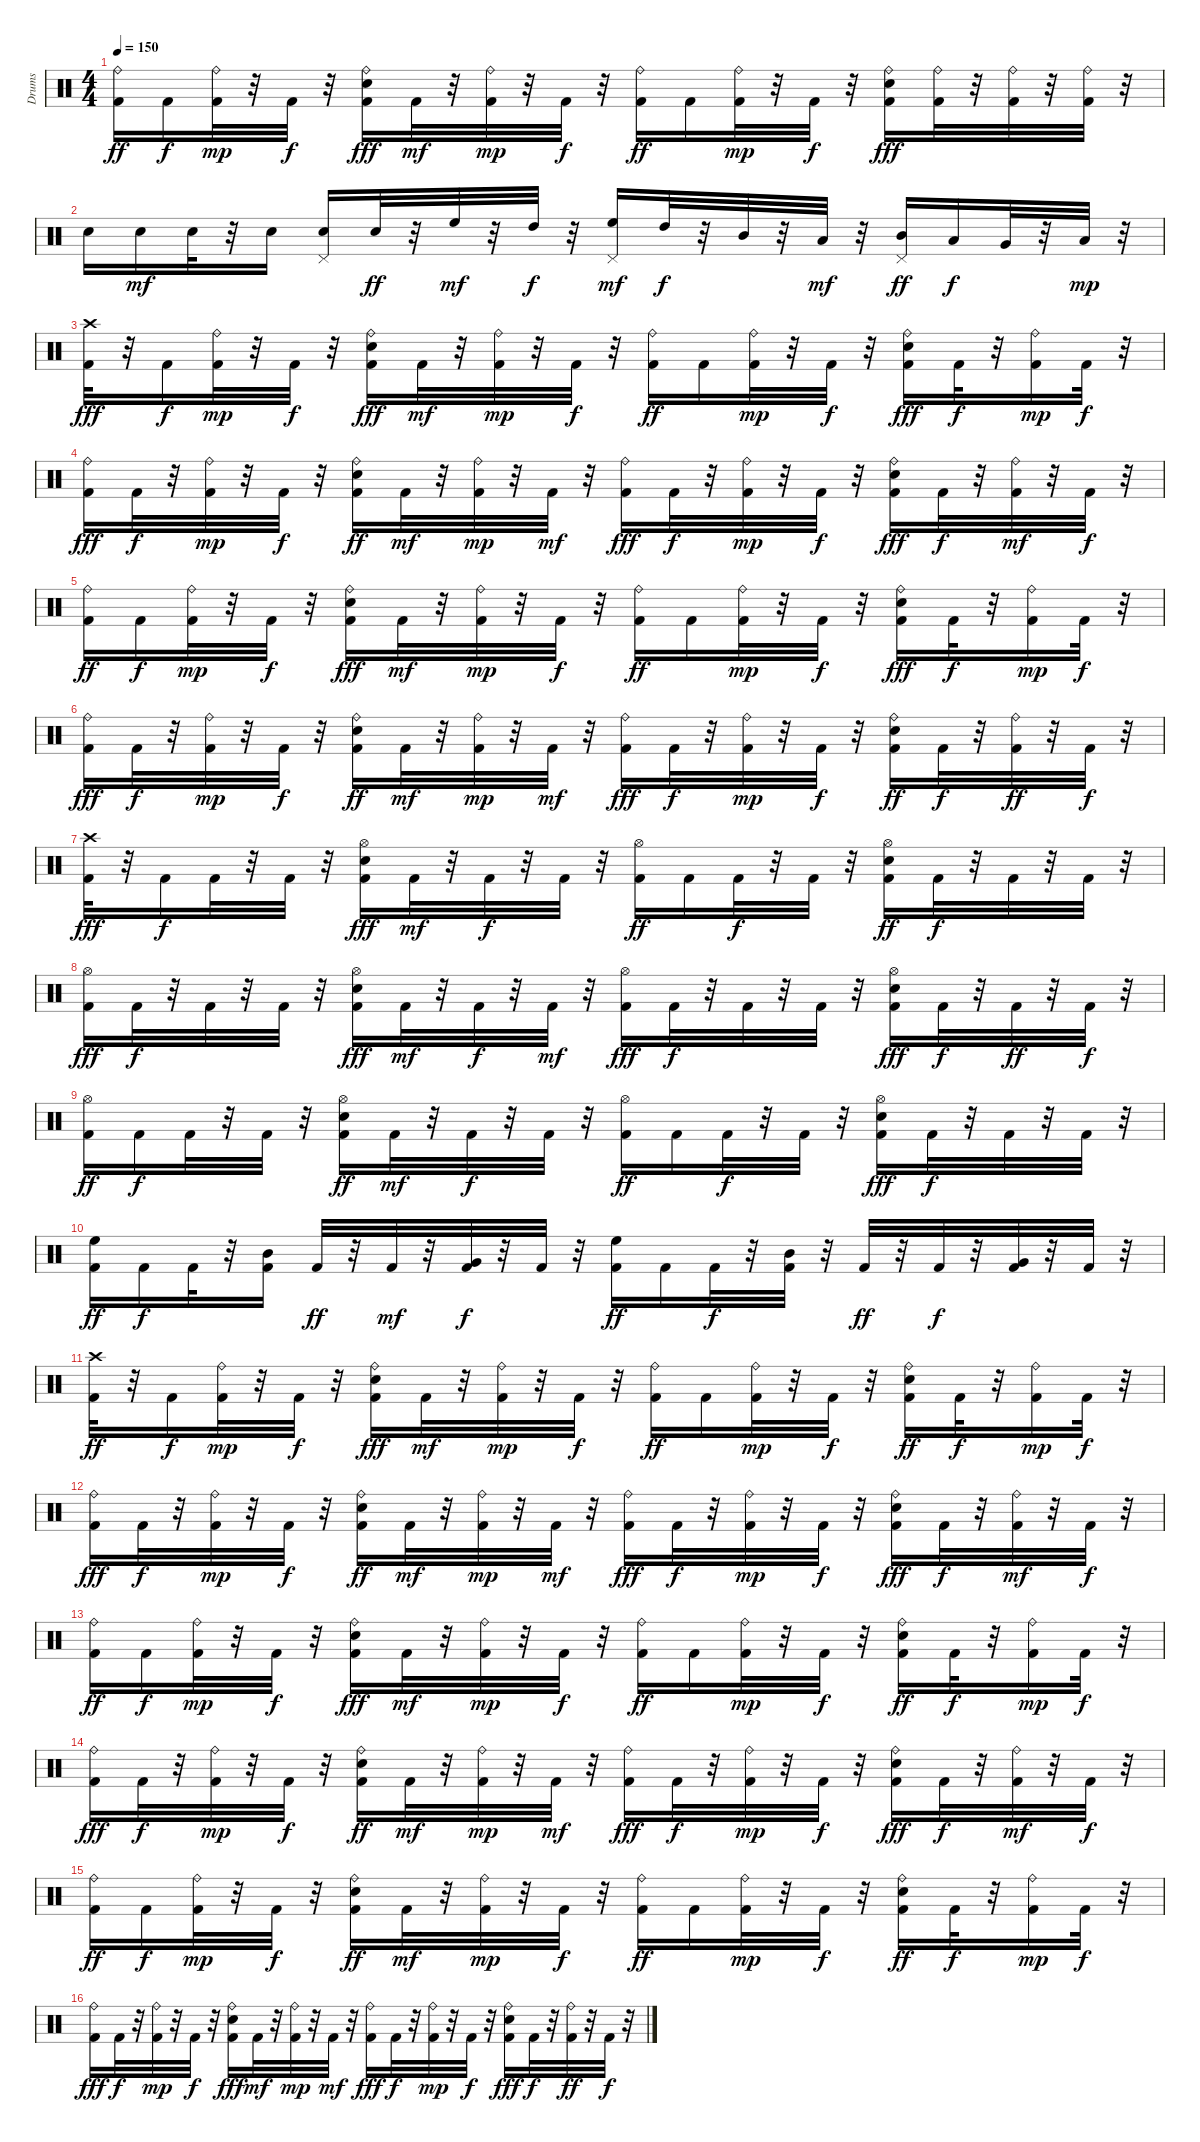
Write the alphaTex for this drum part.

\track ("Drums" "Drums") {instrument percussion}
\staff {score}
\articulation defaults
\ts (4 4)
\tempo 150
\clef neutral
\ks c
("Ride (bell)" "Kick (hit) 2").16{dy ff} "Kick (hit) 2".16{dy f} ("Ride (bell)" "Kick (hit) 2").32{dy mp} r.32 "Kick (hit) 2".32{dy f} r.32 ("Kick (hit) 2" "Electric Snare (hit)" "Ride (bell)").16{dy fff} "Kick (hit) 2".32{dy mf} r.32 ("Kick (hit) 2" "Ride (bell)").32{dy mp} r.32 "Kick (hit) 2".32{dy f} r.32 ("Ride (bell)" "Kick (hit) 2").16{dy ff} "Kick (hit) 2".16 ("Ride (bell)" "Kick (hit) 2").32{dy mp} r.32 "Kick (hit) 2".32{dy f} r.32 ("Electric Snare (hit)" "Kick (hit) 2" "Ride (bell)").16{dy fff} ("Kick (hit) 2" "Ride (bell)").32 r.32 ("Ride (bell)" "Kick (hit) 2").32 r.32 ("Ride (bell)" "Kick (hit) 2").32 r.32 |
"Electric Snare (hit)".16 "Electric Snare (hit)".16{dy mf} "Electric Snare (hit)".32 r.32 "Electric Snare (hit)".16 ("Electric Snare (hit)" "Pedal Hi-Hat (hit)").16 "Electric Snare (hit)".32{dy ff} r.32 "High Floor Tom (hit)".32{dy mf} r.32 "High Tom (hit)".32{dy f} r.32 ("High Floor Tom (hit)" "Pedal Hi-Hat (hit)").16{dy mf} "High Tom (hit)".32{dy f} r.32 "Mid Tom (hit)".32 r.32 "Low Tom (hit)".32{dy mf} r.32 ("Pedal Hi-Hat (hit)" "Mid Tom (hit)").16{dy ff} "Low Tom (hit)".16{dy f} "Very Low Tom (hit)".32 r.32 "Low Floor Tom (hit)".32{dy mp} r.32 |
("Kick (hit) 2" "Crash high (hit)").32{dy fff} r.32 "Kick (hit) 2".16{dy f} ("Ride (bell)" "Kick (hit) 2").32{dy mp} r.32 "Kick (hit) 2".32{dy f} r.32 ("Electric Snare (hit)" "Kick (hit) 2" "Ride (bell)").16{dy fff} "Kick (hit) 2".32{dy mf} r.32 ("Kick (hit) 2" "Ride (bell)").32{dy mp} r.32 "Kick (hit) 2".32{dy f} r.32 ("Kick (hit) 2" "Ride (bell)").16{dy ff} "Kick (hit) 2".16 ("Ride (bell)" "Kick (hit) 2").32{dy mp} r.32 "Kick (hit) 2".32{dy f} r.32 ("Kick (hit) 2" "Ride (bell)" "Electric Snare (hit)").16{dy fff} "Kick (hit) 2".32{dy f} r.32 ("Ride (bell)" "Kick (hit) 2").16{dy mp} "Kick (hit) 2".32{dy f} r.32 |
("Ride (bell)" "Kick (hit) 2").16{dy fff} "Kick (hit) 2".32{dy f} r.32 ("Ride (bell)" "Kick (hit) 2").32{dy mp} r.32 "Kick (hit) 2".32{dy f} r.32 ("Kick (hit) 2" "Electric Snare (hit)" "Ride (bell)").16{dy ff} "Kick (hit) 2".32{dy mf} r.32 ("Ride (bell)" "Kick (hit) 2").32{dy mp} r.32 "Kick (hit) 2".32{dy mf} r.32 ("Kick (hit) 2" "Ride (bell)").16{dy fff} "Kick (hit) 2".32{dy f} r.32 ("Ride (bell)" "Kick (hit) 2").32{dy mp} r.32 "Kick (hit) 2".32{dy f} r.32 ("Ride (bell)" "Electric Snare (hit)" "Kick (hit) 2").16{dy fff} "Kick (hit) 2".32{dy f} r.32 ("Kick (hit) 2" "Ride (bell)").32{dy mf} r.32 "Kick (hit) 2".32{dy f} r.32 |
("Kick (hit) 2" "Ride (bell)").16{dy ff} "Kick (hit) 2".16{dy f} ("Ride (bell)" "Kick (hit) 2").32{dy mp} r.32 "Kick (hit) 2".32{dy f} r.32 ("Electric Snare (hit)" "Kick (hit) 2" "Ride (bell)").16{dy fff} "Kick (hit) 2".32{dy mf} r.32 ("Ride (bell)" "Kick (hit) 2").32{dy mp} r.32 "Kick (hit) 2".32{dy f} r.32 ("Ride (bell)" "Kick (hit) 2").16{dy ff} "Kick (hit) 2".16 ("Kick (hit) 2" "Ride (bell)").32{dy mp} r.32 "Kick (hit) 2".32{dy f} r.32 ("Kick (hit) 2" "Ride (bell)" "Electric Snare (hit)").16{dy fff} "Kick (hit) 2".32{dy f} r.32 ("Ride (bell)" "Kick (hit) 2").16{dy mp} "Kick (hit) 2".32{dy f} r.32 |
("Ride (bell)" "Kick (hit) 2").16{dy fff} "Kick (hit) 2".32{dy f} r.32 ("Kick (hit) 2" "Ride (bell)").32{dy mp} r.32 "Kick (hit) 2".32{dy f} r.32 ("Kick (hit) 2" "Electric Snare (hit)" "Ride (bell)").16{dy ff} "Kick (hit) 2".32{dy mf} r.32 ("Ride (bell)" "Kick (hit) 2").32{dy mp} r.32 "Kick (hit) 2".32{dy mf} r.32 ("Ride (bell)" "Kick (hit) 2").16{dy fff} "Kick (hit) 2".32{dy f} r.32 ("Kick (hit) 2" "Ride (bell)").32{dy mp} r.32 "Kick (hit) 2".32{dy f} r.32 ("Kick (hit) 2" "Electric Snare (hit)" "Ride (bell)").16{dy ff} "Kick (hit) 2".32{dy f} r.32 ("Ride (bell)" "Kick (hit) 2").32{dy ff} r.32 "Kick (hit) 2".32{dy f} r.32 |
("Kick (hit) 2" "Crash high (hit)").32{dy fff} r.32 "Kick (hit) 2".16{dy f} "Kick (hit) 2".32 r.32 "Kick (hit) 2".32 r.32 ("Kick (hit) 2" "Hi-Hat (open)" "Electric Snare (hit)").16{dy fff} "Kick (hit) 2".32{dy mf} r.32 "Kick (hit) 2".32{dy f} r.32 "Kick (hit) 2".32 r.32 ("Hi-Hat (open)" "Kick (hit) 2").16{dy ff} "Kick (hit) 2".16 "Kick (hit) 2".32{dy f} r.32 "Kick (hit) 2".32 r.32 ("Electric Snare (hit)" "Kick (hit) 2" "Hi-Hat (open)").16{dy ff} "Kick (hit) 2".32{dy f} r.32 "Kick (hit) 2".32 r.32 "Kick (hit) 2".32 r.32 |
("Kick (hit) 2" "Hi-Hat (open)").16{dy fff} "Kick (hit) 2".32{dy f} r.32 "Kick (hit) 2".32 r.32 "Kick (hit) 2".32 r.32 ("Kick (hit) 2" "Electric Snare (hit)" "Hi-Hat (open)").16{dy fff} "Kick (hit) 2".32{dy mf} r.32 "Kick (hit) 2".32{dy f} r.32 "Kick (hit) 2".32{dy mf} r.32 ("Hi-Hat (open)" "Kick (hit) 2").16{dy fff} "Kick (hit) 2".32{dy f} r.32 "Kick (hit) 2".32 r.32 "Kick (hit) 2".32 r.32 ("Hi-Hat (open)" "Kick (hit) 2" "Electric Snare (hit)").16{dy fff} "Kick (hit) 2".32{dy f} r.32 "Kick (hit) 2".32{dy ff} r.32 "Kick (hit) 2".32{dy f} r.32 |
("Hi-Hat (open)" "Kick (hit) 2").16{dy ff} "Kick (hit) 2".16{dy f} "Kick (hit) 2".32 r.32 "Kick (hit) 2".32 r.32 ("Electric Snare (hit)" "Hi-Hat (open)" "Kick (hit) 2").16{dy ff} "Kick (hit) 2".32{dy mf} r.32 "Kick (hit) 2".32{dy f} r.32 "Kick (hit) 2".32 r.32 ("Hi-Hat (open)" "Kick (hit) 2").16{dy ff} "Kick (hit) 2".16 "Kick (hit) 2".32{dy f} r.32 "Kick (hit) 2".32 r.32 ("Kick (hit) 2" "Hi-Hat (open)" "Electric Snare (hit)").16{dy fff} "Kick (hit) 2".32{dy f} r.32 "Kick (hit) 2".32 r.32 "Kick (hit) 2".32 r.32 |
("High Floor Tom (hit)" "Kick (hit) 2").16{dy ff} "Kick (hit) 2".16{dy f} "Kick (hit) 2".32 r.32 ("Kick (hit) 2" "Mid Tom (hit)").16 "Kick (hit) 2".32{dy ff} r.32 "Kick (hit) 2".32{dy mf} r.32 ("Kick (hit) 2" "Very Low Tom (hit)").32{dy f} r.32 "Kick (hit) 2".32 r.32 ("High Floor Tom (hit)" "Kick (hit) 2").16{dy ff} "Kick (hit) 2".16 "Kick (hit) 2".32{dy f} r.32 ("Kick (hit) 2" "Mid Tom (hit)").32 r.32 "Kick (hit) 2".32{dy ff} r.32 "Kick (hit) 2".32{dy f} r.32 ("Kick (hit) 2" "Very Low Tom (hit)").32 r.32 "Kick (hit) 2".32 r.32 |
("Crash high (hit)" "Kick (hit) 2").32{dy ff} r.32 "Kick (hit) 2".16{dy f} ("Ride (bell)" "Kick (hit) 2").32{dy mp} r.32 "Kick (hit) 2".32{dy f} r.32 ("Ride (bell)" "Kick (hit) 2" "Electric Snare (hit)").16{dy fff} "Kick (hit) 2".32{dy mf} r.32 ("Ride (bell)" "Kick (hit) 2").32{dy mp} r.32 "Kick (hit) 2".32{dy f} r.32 ("Ride (bell)" "Kick (hit) 2").16{dy ff} "Kick (hit) 2".16 ("Kick (hit) 2" "Ride (bell)").32{dy mp} r.32 "Kick (hit) 2".32{dy f} r.32 ("Electric Snare (hit)" "Ride (bell)" "Kick (hit) 2").16{dy ff} "Kick (hit) 2".32{dy f} r.32 ("Kick (hit) 2" "Ride (bell)").16{dy mp} "Kick (hit) 2".32{dy f} r.32 |
("Ride (bell)" "Kick (hit) 2").16{dy fff} "Kick (hit) 2".32{dy f} r.32 ("Ride (bell)" "Kick (hit) 2").32{dy mp} r.32 "Kick (hit) 2".32{dy f} r.32 ("Kick (hit) 2" "Electric Snare (hit)" "Ride (bell)").16{dy ff} "Kick (hit) 2".32{dy mf} r.32 ("Kick (hit) 2" "Ride (bell)").32{dy mp} r.32 "Kick (hit) 2".32{dy mf} r.32 ("Ride (bell)" "Kick (hit) 2").16{dy fff} "Kick (hit) 2".32{dy f} r.32 ("Kick (hit) 2" "Ride (bell)").32{dy mp} r.32 "Kick (hit) 2".32{dy f} r.32 ("Ride (bell)" "Kick (hit) 2" "Electric Snare (hit)").16{dy fff} "Kick (hit) 2".32{dy f} r.32 ("Kick (hit) 2" "Ride (bell)").32{dy mf} r.32 "Kick (hit) 2".32{dy f} r.32 |
("Kick (hit) 2" "Ride (bell)").16{dy ff} "Kick (hit) 2".16{dy f} ("Kick (hit) 2" "Ride (bell)").32{dy mp} r.32 "Kick (hit) 2".32{dy f} r.32 ("Electric Snare (hit)" "Kick (hit) 2" "Ride (bell)").16{dy fff} "Kick (hit) 2".32{dy mf} r.32 ("Kick (hit) 2" "Ride (bell)").32{dy mp} r.32 "Kick (hit) 2".32{dy f} r.32 ("Ride (bell)" "Kick (hit) 2").16{dy ff} "Kick (hit) 2".16 ("Kick (hit) 2" "Ride (bell)").32{dy mp} r.32 "Kick (hit) 2".32{dy f} r.32 ("Electric Snare (hit)" "Ride (bell)" "Kick (hit) 2").16{dy ff} "Kick (hit) 2".32{dy f} r.32 ("Ride (bell)" "Kick (hit) 2").16{dy mp} "Kick (hit) 2".32{dy f} r.32 |
("Ride (bell)" "Kick (hit) 2").16{dy fff} "Kick (hit) 2".32{dy f} r.32 ("Kick (hit) 2" "Ride (bell)").32{dy mp} r.32 "Kick (hit) 2".32{dy f} r.32 ("Electric Snare (hit)" "Kick (hit) 2" "Ride (bell)").16{dy ff} "Kick (hit) 2".32{dy mf} r.32 ("Ride (bell)" "Kick (hit) 2").32{dy mp} r.32 "Kick (hit) 2".32{dy mf} r.32 ("Kick (hit) 2" "Ride (bell)").16{dy fff} "Kick (hit) 2".32{dy f} r.32 ("Kick (hit) 2" "Ride (bell)").32{dy mp} r.32 "Kick (hit) 2".32{dy f} r.32 ("Kick (hit) 2" "Ride (bell)" "Electric Snare (hit)").16{dy fff} "Kick (hit) 2".32{dy f} r.32 ("Kick (hit) 2" "Ride (bell)").32{dy mf} r.32 "Kick (hit) 2".32{dy f} r.32 |
("Kick (hit) 2" "Ride (bell)").16{dy ff} "Kick (hit) 2".16{dy f} ("Ride (bell)" "Kick (hit) 2").32{dy mp} r.32 "Kick (hit) 2".32{dy f} r.32 ("Ride (bell)" "Electric Snare (hit)" "Kick (hit) 2").16{dy ff} "Kick (hit) 2".32{dy mf} r.32 ("Kick (hit) 2" "Ride (bell)").32{dy mp} r.32 "Kick (hit) 2".32{dy f} r.32 ("Ride (bell)" "Kick (hit) 2").16{dy ff} "Kick (hit) 2".16 ("Kick (hit) 2" "Ride (bell)").32{dy mp} r.32 "Kick (hit) 2".32{dy f} r.32 ("Electric Snare (hit)" "Kick (hit) 2" "Ride (bell)").16{dy ff} "Kick (hit) 2".32{dy f} r.32 ("Ride (bell)" "Kick (hit) 2").16{dy mp} "Kick (hit) 2".32{dy f} r.32 |
("Kick (hit) 2" "Ride (bell)").16{dy fff} "Kick (hit) 2".32{dy f} r.32 ("Kick (hit) 2" "Ride (bell)").32{dy mp} r.32 "Kick (hit) 2".32{dy f} r.32 ("Ride (bell)" "Kick (hit) 2" "Electric Snare (hit)").16{dy fff} "Kick (hit) 2".32{dy mf} r.32 ("Ride (bell)" "Kick (hit) 2").32{dy mp} r.32 "Kick (hit) 2".32{dy mf} r.32 ("Ride (bell)" "Kick (hit) 2").16{dy fff} "Kick (hit) 2".32{dy f} r.32 ("Ride (bell)" "Kick (hit) 2").32{dy mp} r.32 "Kick (hit) 2".32{dy f} r.32 ("Kick (hit) 2" "Ride (bell)" "Electric Snare (hit)").16{dy fff} "Kick (hit) 2".32{dy f} r.32 ("Ride (bell)" "Kick (hit) 2").32{dy ff} r.32 "Kick (hit) 2".32{dy f} r.32
